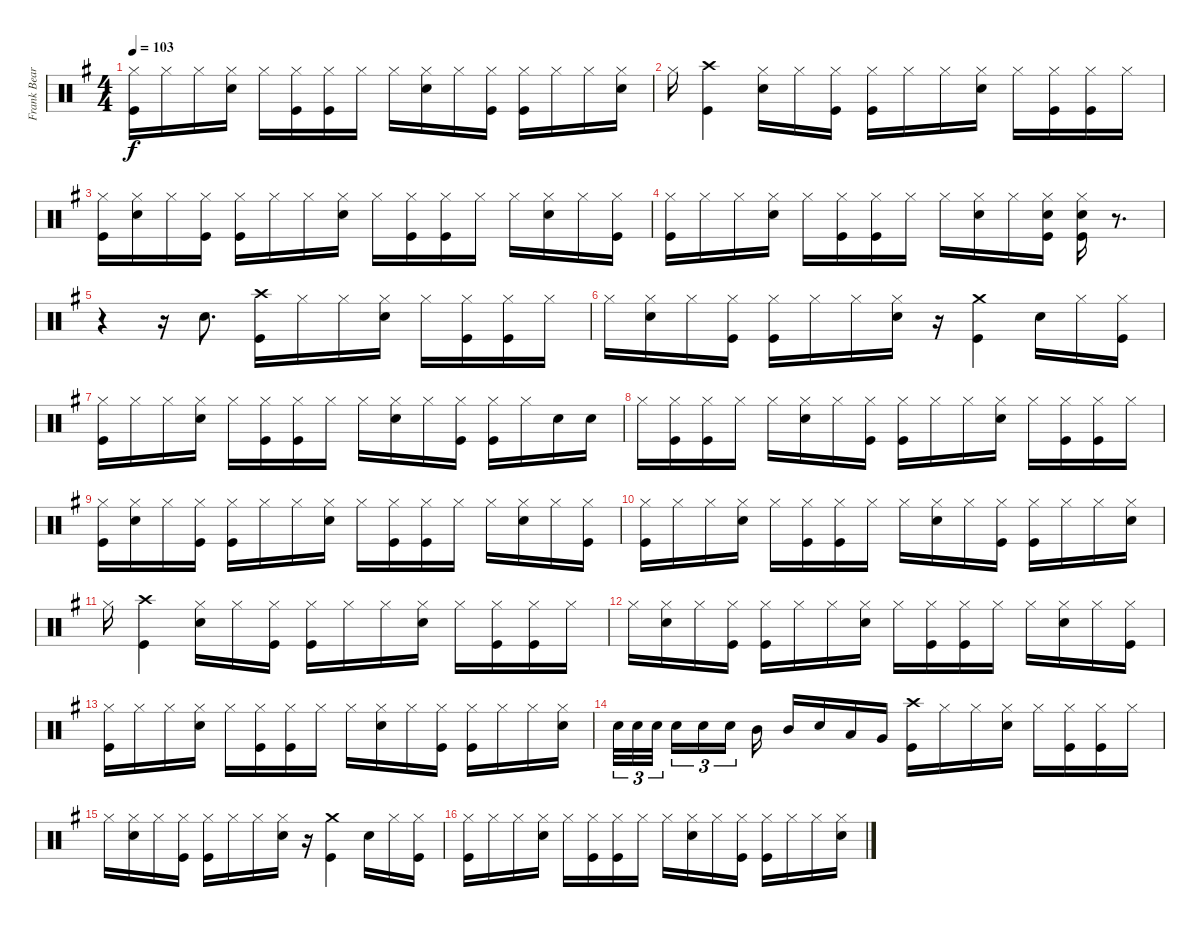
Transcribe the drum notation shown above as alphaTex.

\track ("Frank Beard Drums" "Frank Bear") {instrument percussion}
\staff {score}
\articulation defaults
\ts (4 4)
\tempo 103
\clef neutral
\ks g
("Hi-Hat (closed)" "Kick (hit)").16{dy f} "Hi-Hat (closed)".16 "Hi-Hat (closed)".16 ("Hi-Hat (closed)" "Snare (hit) 2").16 "Hi-Hat (closed)".16 ("Hi-Hat (closed)" "Kick (hit)").16 ("Hi-Hat (closed)" "Kick (hit)").16 "Hi-Hat (closed)".16 "Hi-Hat (closed)".16 ("Hi-Hat (closed)" "Snare (hit) 2").16 "Hi-Hat (closed)".16 ("Hi-Hat (closed)" "Kick (hit)").16 ("Hi-Hat (closed)" "Kick (hit)").16 "Hi-Hat (closed)".16 "Hi-Hat (closed)".16 ("Hi-Hat (closed)" "Snare (hit) 2").16 |
"Hi-Hat (closed)".16 ("Crash high (hit)" "Kick (hit)").4 ("Hi-Hat (closed)" "Snare (hit) 2").16 "Hi-Hat (closed)".16 ("Hi-Hat (closed)" "Kick (hit)").16 ("Hi-Hat (closed)" "Kick (hit)").16 "Hi-Hat (closed)".16 "Hi-Hat (closed)".16 ("Hi-Hat (closed)" "Snare (hit) 2").16 "Hi-Hat (closed)".16 ("Hi-Hat (closed)" "Kick (hit)").16 ("Hi-Hat (closed)" "Kick (hit)").16 "Hi-Hat (closed)".16 |
("Hi-Hat (closed)" "Kick (hit)").16 ("Hi-Hat (closed)" "Snare (hit) 2").16 "Hi-Hat (closed)".16 ("Hi-Hat (closed)" "Kick (hit)").16 ("Hi-Hat (closed)" "Kick (hit)").16 "Hi-Hat (closed)".16 "Hi-Hat (closed)".16 ("Hi-Hat (closed)" "Snare (hit) 2").16 "Hi-Hat (closed)".16 ("Hi-Hat (closed)" "Kick (hit)").16 ("Hi-Hat (closed)" "Kick (hit)").16 "Hi-Hat (closed)".16 "Hi-Hat (closed)".16 ("Hi-Hat (closed)" "Snare (hit) 2").16 "Hi-Hat (closed)".16 ("Hi-Hat (closed)" "Kick (hit)").16 |
("Hi-Hat (closed)" "Kick (hit)").16 "Hi-Hat (closed)".16 "Hi-Hat (closed)".16 ("Hi-Hat (closed)" "Snare (hit) 2").16 "Hi-Hat (closed)".16 ("Hi-Hat (closed)" "Kick (hit)").16 ("Hi-Hat (closed)" "Kick (hit)").16 "Hi-Hat (closed)".16 "Hi-Hat (closed)".16 ("Hi-Hat (closed)" "Snare (hit) 2").16 "Hi-Hat (closed)".16 ("Hi-Hat (closed)" "Snare (hit) 2" "Kick (hit)").16 ("Hi-Hat (closed)" "Snare (hit) 2" "Kick (hit)").16 r.8{d} |
r.4 r.16 "Snare (hit) 2".8{d} ("Crash high (hit)" "Kick (hit)").16 "Hi-Hat (closed)".16 "Hi-Hat (closed)".16 ("Hi-Hat (closed)" "Snare (hit) 2").16 "Hi-Hat (closed)".16 ("Hi-Hat (closed)" "Kick (hit)").16 ("Hi-Hat (closed)" "Kick (hit)").16 "Hi-Hat (closed)".16 |
"Hi-Hat (closed)".16 ("Hi-Hat (closed)" "Snare (hit) 2").16 "Hi-Hat (closed)".16 ("Hi-Hat (closed)" "Kick (hit)").16 ("Hi-Hat (closed)" "Kick (hit)").16 "Hi-Hat (closed)".16 "Hi-Hat (closed)".16 ("Hi-Hat (closed)" "Snare (hit) 2").16 r.16 ("Crash medium (hit)" "Kick (hit)").4 "Snare (hit) 2".16 "Hi-Hat (closed)".16 ("Hi-Hat (closed)" "Kick (hit)").16 |
("Hi-Hat (closed)" "Kick (hit)").16 "Hi-Hat (closed)".16 "Hi-Hat (closed)".16 ("Hi-Hat (closed)" "Snare (hit) 2").16 "Hi-Hat (closed)".16 ("Hi-Hat (closed)" "Kick (hit)").16 ("Hi-Hat (closed)" "Kick (hit)").16 "Hi-Hat (closed)".16 "Hi-Hat (closed)".16 ("Hi-Hat (closed)" "Snare (hit) 2").16 "Hi-Hat (closed)".16 ("Hi-Hat (closed)" "Kick (hit)").16 ("Hi-Hat (closed)" "Kick (hit)").16 "Hi-Hat (closed)".16 "Snare (hit) 2".16 "Snare (hit) 2".16 |
"Hi-Hat (closed)".16 ("Hi-Hat (closed)" "Kick (hit)").16 ("Hi-Hat (closed)" "Kick (hit)").16 "Hi-Hat (closed)".16 "Hi-Hat (closed)".16 ("Hi-Hat (closed)" "Snare (hit) 2").16 "Hi-Hat (closed)".16 ("Hi-Hat (closed)" "Kick (hit)").16 ("Hi-Hat (closed)" "Kick (hit)").16 "Hi-Hat (closed)".16 "Hi-Hat (closed)".16 ("Hi-Hat (closed)" "Snare (hit) 2").16 "Hi-Hat (closed)".16 ("Hi-Hat (closed)" "Kick (hit)").16 ("Hi-Hat (closed)" "Kick (hit)").16 "Hi-Hat (closed)".16 |
("Hi-Hat (closed)" "Kick (hit)").16 ("Hi-Hat (closed)" "Snare (hit) 2").16 "Hi-Hat (closed)".16 ("Hi-Hat (closed)" "Kick (hit)").16 ("Hi-Hat (closed)" "Kick (hit)").16 "Hi-Hat (closed)".16 "Hi-Hat (closed)".16 ("Hi-Hat (closed)" "Snare (hit) 2").16 "Hi-Hat (closed)".16 ("Hi-Hat (closed)" "Kick (hit)").16 ("Hi-Hat (closed)" "Kick (hit)").16 "Hi-Hat (closed)".16 "Hi-Hat (closed)".16 ("Hi-Hat (closed)" "Snare (hit) 2").16 "Hi-Hat (closed)".16 ("Hi-Hat (closed)" "Kick (hit)").16 |
("Hi-Hat (closed)" "Kick (hit)").16 "Hi-Hat (closed)".16 "Hi-Hat (closed)".16 ("Hi-Hat (closed)" "Snare (hit) 2").16 "Hi-Hat (closed)".16 ("Hi-Hat (closed)" "Kick (hit)").16 ("Hi-Hat (closed)" "Kick (hit)").16 "Hi-Hat (closed)".16 "Hi-Hat (closed)".16 ("Hi-Hat (closed)" "Snare (hit) 2").16 "Hi-Hat (closed)".16 ("Hi-Hat (closed)" "Kick (hit)").16 ("Hi-Hat (closed)" "Kick (hit)").16 "Hi-Hat (closed)".16 "Hi-Hat (closed)".16 ("Hi-Hat (closed)" "Snare (hit) 2").16 |
"Hi-Hat (closed)".16 ("Crash high (hit)" "Kick (hit)").4 ("Hi-Hat (closed)" "Snare (hit) 2").16 "Hi-Hat (closed)".16 ("Hi-Hat (closed)" "Kick (hit)").16 ("Hi-Hat (closed)" "Kick (hit)").16 "Hi-Hat (closed)".16 "Hi-Hat (closed)".16 ("Hi-Hat (closed)" "Snare (hit) 2").16 "Hi-Hat (closed)".16 ("Hi-Hat (closed)" "Kick (hit)").16 ("Hi-Hat (closed)" "Kick (hit)").16 "Hi-Hat (closed)".16 |
"Hi-Hat (closed)".16 ("Hi-Hat (closed)" "Snare (hit) 2").16 "Hi-Hat (closed)".16 ("Hi-Hat (closed)" "Kick (hit)").16 ("Hi-Hat (closed)" "Kick (hit)").16 "Hi-Hat (closed)".16 "Hi-Hat (closed)".16 ("Hi-Hat (closed)" "Snare (hit) 2").16 "Hi-Hat (closed)".16 ("Hi-Hat (closed)" "Kick (hit)").16 ("Hi-Hat (closed)" "Kick (hit)").16 "Hi-Hat (closed)".16 "Hi-Hat (closed)".16 ("Hi-Hat (closed)" "Snare (hit) 2").16 "Hi-Hat (closed)".16 ("Hi-Hat (closed)" "Kick (hit)").16 |
("Hi-Hat (closed)" "Kick (hit)").16 "Hi-Hat (closed)".16 "Hi-Hat (closed)".16 ("Hi-Hat (closed)" "Snare (hit) 2").16 "Hi-Hat (closed)".16 ("Hi-Hat (closed)" "Kick (hit)").16 ("Hi-Hat (closed)" "Kick (hit)").16 "Hi-Hat (closed)".16 "Hi-Hat (closed)".16 ("Hi-Hat (closed)" "Snare (hit) 2").16 "Hi-Hat (closed)".16 ("Hi-Hat (closed)" "Kick (hit)").16 ("Hi-Hat (closed)" "Kick (hit)").16 "Hi-Hat (closed)".16 "Hi-Hat (closed)".16 ("Hi-Hat (closed)" "Snare (hit) 2").16 |
"Snare (hit) 2".32{tu (3 2)} "Snare (hit) 2".32{tu (3 2)} "Snare (hit) 2".32{tu (3 2) beam splitsecondary} "Snare (hit) 2".16{tu (3 2)} "Snare (hit) 2".16{tu (3 2)} "Snare (hit) 2".16{tu (3 2) beam splitsecondary} "Mid Tom (hit)".16 "Mid Tom (hit)".16 "Snare (hit) 2".16 "Low Tom (hit)".16 "Very Low Tom (hit)".16 ("Crash high (hit)" "Kick (hit)").16 "Hi-Hat (closed)".16 "Hi-Hat (closed)".16 ("Hi-Hat (closed)" "Snare (hit) 2").16 "Hi-Hat (closed)".16 ("Hi-Hat (closed)" "Kick (hit)").16 ("Hi-Hat (closed)" "Kick (hit)").16 "Hi-Hat (closed)".16 |
"Hi-Hat (closed)".16 ("Hi-Hat (closed)" "Snare (hit) 2").16 "Hi-Hat (closed)".16 ("Hi-Hat (closed)" "Kick (hit)").16 ("Hi-Hat (closed)" "Kick (hit)").16 "Hi-Hat (closed)".16 "Hi-Hat (closed)".16 ("Hi-Hat (closed)" "Snare (hit) 2").16 r.16 ("Crash medium (hit)" "Kick (hit)").4 "Snare (hit) 2".16 "Hi-Hat (closed)".16 ("Hi-Hat (closed)" "Kick (hit)").16 |
("Hi-Hat (closed)" "Kick (hit)").16 "Hi-Hat (closed)".16 "Hi-Hat (closed)".16 ("Hi-Hat (closed)" "Snare (hit) 2").16 "Hi-Hat (closed)".16 ("Hi-Hat (closed)" "Kick (hit)").16 ("Hi-Hat (closed)" "Kick (hit)").16 "Hi-Hat (closed)".16 "Hi-Hat (closed)".16 ("Hi-Hat (closed)" "Snare (hit) 2").16 "Hi-Hat (closed)".16 ("Hi-Hat (closed)" "Kick (hit)").16 ("Hi-Hat (closed)" "Kick (hit)").16 "Hi-Hat (closed)".16 "Hi-Hat (closed)".16 ("Hi-Hat (closed)" "Snare (hit) 2").16
